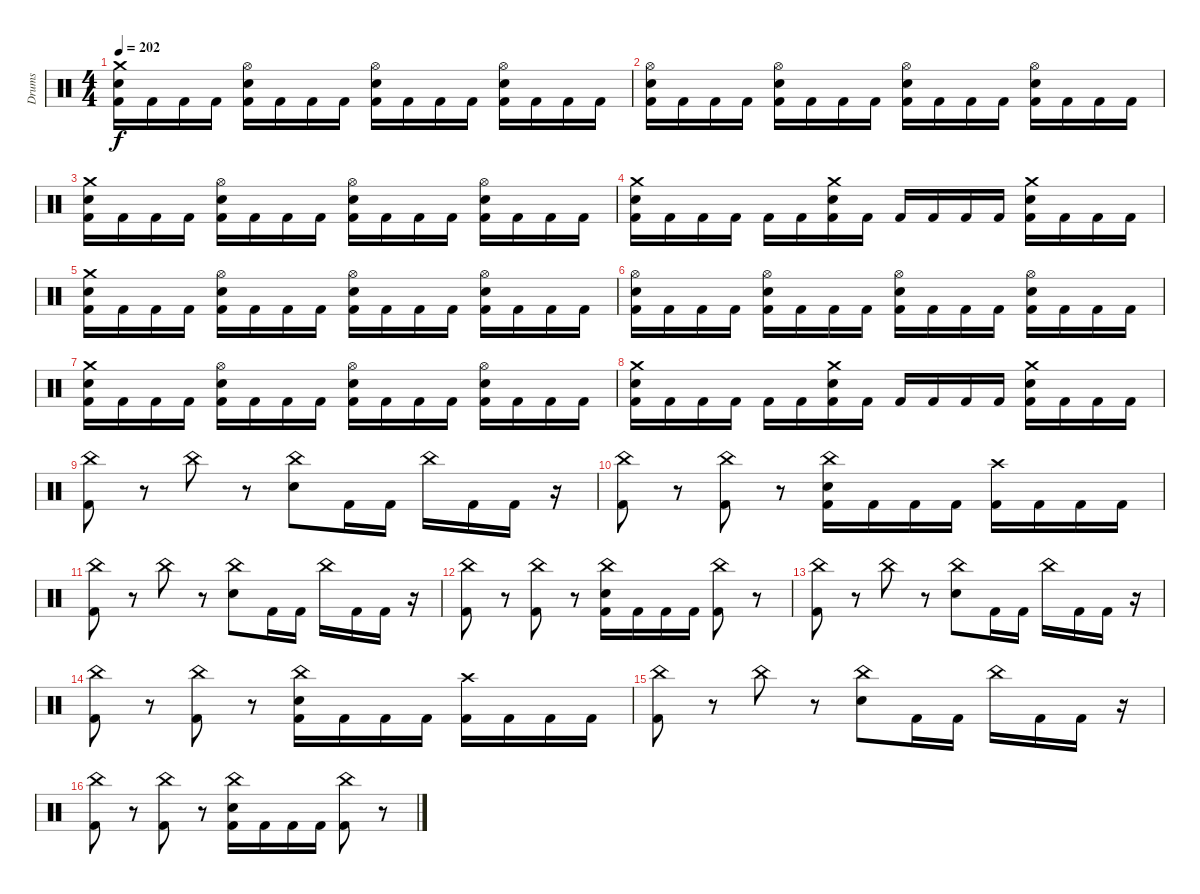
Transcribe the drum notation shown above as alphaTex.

\track ("Drums" "Drums") {instrument percussion}
\staff {score}
\articulation defaults
\ts (4 4)
\tempo 202
\clef neutral
\ks c
("Crash medium (hit)" "Electric Snare (hit)" "Kick (hit) 2").16{dy f} "Kick (hit) 2".16 "Kick (hit) 2".16 "Kick (hit) 2".16 ("Hi-Hat (open)" "Electric Snare (hit)" "Kick (hit) 2").16 "Kick (hit) 2".16 "Kick (hit) 2".16 "Kick (hit) 2".16 ("Hi-Hat (open)" "Electric Snare (hit)" "Kick (hit) 2").16 "Kick (hit) 2".16 "Kick (hit) 2".16 "Kick (hit) 2".16 ("Hi-Hat (open)" "Electric Snare (hit)" "Kick (hit) 2").16 "Kick (hit) 2".16 "Kick (hit) 2".16 "Kick (hit) 2".16 |
("Hi-Hat (open)" "Electric Snare (hit)" "Kick (hit) 2").16 "Kick (hit) 2".16 "Kick (hit) 2".16 "Kick (hit) 2".16 ("Hi-Hat (open)" "Electric Snare (hit)" "Kick (hit) 2").16 "Kick (hit) 2".16 "Kick (hit) 2".16 "Kick (hit) 2".16 ("Hi-Hat (open)" "Electric Snare (hit)" "Kick (hit) 2").16 "Kick (hit) 2".16 "Kick (hit) 2".16 "Kick (hit) 2".16 ("Hi-Hat (open)" "Electric Snare (hit)" "Kick (hit) 2").16 "Kick (hit) 2".16 "Kick (hit) 2".16 "Kick (hit) 2".16 |
("Crash medium (hit)" "Electric Snare (hit)" "Kick (hit) 2").16 "Kick (hit) 2".16 "Kick (hit) 2".16 "Kick (hit) 2".16 ("Hi-Hat (open)" "Electric Snare (hit)" "Kick (hit) 2").16 "Kick (hit) 2".16 "Kick (hit) 2".16 "Kick (hit) 2".16 ("Hi-Hat (open)" "Electric Snare (hit)" "Kick (hit) 2").16 "Kick (hit) 2".16 "Kick (hit) 2".16 "Kick (hit) 2".16 ("Hi-Hat (open)" "Electric Snare (hit)" "Kick (hit) 2").16 "Kick (hit) 2".16 "Kick (hit) 2".16 "Kick (hit) 2".16 |
("Crash medium (hit)" "Electric Snare (hit)" "Kick (hit) 2").16 "Kick (hit) 2".16 "Kick (hit) 2".16 "Kick (hit) 2".16 "Kick (hit) 2".16 "Kick (hit) 2".16 ("Crash medium (hit)" "Electric Snare (hit)" "Kick (hit) 2").16 "Kick (hit) 2".16 "Kick (hit) 2".16 "Kick (hit) 2".16 "Kick (hit) 2".16 "Kick (hit) 2".16 ("Crash medium (hit)" "Electric Snare (hit)" "Kick (hit) 2").16 "Kick (hit) 2".16 "Kick (hit) 2".16 "Kick (hit) 2".16 |
("Crash medium (hit)" "Electric Snare (hit)" "Kick (hit) 2").16 "Kick (hit) 2".16 "Kick (hit) 2".16 "Kick (hit) 2".16 ("Hi-Hat (open)" "Electric Snare (hit)" "Kick (hit) 2").16 "Kick (hit) 2".16 "Kick (hit) 2".16 "Kick (hit) 2".16 ("Hi-Hat (open)" "Electric Snare (hit)" "Kick (hit) 2").16 "Kick (hit) 2".16 "Kick (hit) 2".16 "Kick (hit) 2".16 ("Hi-Hat (open)" "Electric Snare (hit)" "Kick (hit) 2").16 "Kick (hit) 2".16 "Kick (hit) 2".16 "Kick (hit) 2".16 |
("Hi-Hat (open)" "Electric Snare (hit)" "Kick (hit) 2").16 "Kick (hit) 2".16 "Kick (hit) 2".16 "Kick (hit) 2".16 ("Hi-Hat (open)" "Electric Snare (hit)" "Kick (hit) 2").16 "Kick (hit) 2".16 "Kick (hit) 2".16 "Kick (hit) 2".16 ("Hi-Hat (open)" "Electric Snare (hit)" "Kick (hit) 2").16 "Kick (hit) 2".16 "Kick (hit) 2".16 "Kick (hit) 2".16 ("Hi-Hat (open)" "Electric Snare (hit)" "Kick (hit) 2").16 "Kick (hit) 2".16 "Kick (hit) 2".16 "Kick (hit) 2".16 |
("Crash medium (hit)" "Electric Snare (hit)" "Kick (hit) 2").16 "Kick (hit) 2".16 "Kick (hit) 2".16 "Kick (hit) 2".16 ("Hi-Hat (open)" "Electric Snare (hit)" "Kick (hit) 2").16 "Kick (hit) 2".16 "Kick (hit) 2".16 "Kick (hit) 2".16 ("Hi-Hat (open)" "Electric Snare (hit)" "Kick (hit) 2").16 "Kick (hit) 2".16 "Kick (hit) 2".16 "Kick (hit) 2".16 ("Hi-Hat (open)" "Electric Snare (hit)" "Kick (hit) 2").16 "Kick (hit) 2".16 "Kick (hit) 2".16 "Kick (hit) 2".16 |
("Crash medium (hit)" "Electric Snare (hit)" "Kick (hit) 2").16 "Kick (hit) 2".16 "Kick (hit) 2".16 "Kick (hit) 2".16 "Kick (hit) 2".16 "Kick (hit) 2".16 ("Crash medium (hit)" "Electric Snare (hit)" "Kick (hit) 2").16 "Kick (hit) 2".16 "Kick (hit) 2".16 "Kick (hit) 2".16 "Kick (hit) 2".16 "Kick (hit) 2".16 ("Crash medium (hit)" "Electric Snare (hit)" "Kick (hit) 2").16 "Kick (hit) 2".16 "Kick (hit) 2".16 "Kick (hit) 2".16 |
("China (hit)" "Kick (hit) 2").8 r.8 "China (hit)".8 r.8 ("China (hit)" "Electric Snare (hit)").8 "Kick (hit) 2".16 "Kick (hit) 2".16 "China (hit)".16 "Kick (hit) 2".16 "Kick (hit) 2".16 r.16 |
("China (hit)" "Kick (hit) 2").8 r.8 ("China (hit)" "Kick (hit) 2").8 r.8 ("China (hit)" "Electric Snare (hit)" "Kick (hit) 2").16 "Kick (hit) 2".16 "Kick (hit) 2".16 "Kick (hit) 2".16 ("Crash high (hit)" "Kick (hit) 2").16 "Kick (hit) 2".16 "Kick (hit) 2".16 "Kick (hit) 2".16 |
("China (hit)" "Kick (hit) 2").8 r.8 "China (hit)".8 r.8 ("China (hit)" "Electric Snare (hit)").8 "Kick (hit) 2".16 "Kick (hit) 2".16 "China (hit)".16 "Kick (hit) 2".16 "Kick (hit) 2".16 r.16 |
("China (hit)" "Kick (hit) 2").8 r.8 ("China (hit)" "Kick (hit) 2").8 r.8 ("China (hit)" "Electric Snare (hit)" "Kick (hit) 2").16 "Kick (hit) 2".16 "Kick (hit) 2".16 "Kick (hit) 2".16 ("China (hit)" "Kick (hit) 2").8 r.8 |
("China (hit)" "Kick (hit) 2").8 r.8 "China (hit)".8 r.8 ("China (hit)" "Electric Snare (hit)").8 "Kick (hit) 2".16 "Kick (hit) 2".16 "China (hit)".16 "Kick (hit) 2".16 "Kick (hit) 2".16 r.16 |
("China (hit)" "Kick (hit) 2").8 r.8 ("China (hit)" "Kick (hit) 2").8 r.8 ("China (hit)" "Electric Snare (hit)" "Kick (hit) 2").16 "Kick (hit) 2".16 "Kick (hit) 2".16 "Kick (hit) 2".16 ("Crash high (hit)" "Kick (hit) 2").16 "Kick (hit) 2".16 "Kick (hit) 2".16 "Kick (hit) 2".16 |
("China (hit)" "Kick (hit) 2").8 r.8 "China (hit)".8 r.8 ("China (hit)" "Electric Snare (hit)").8 "Kick (hit) 2".16 "Kick (hit) 2".16 "China (hit)".16 "Kick (hit) 2".16 "Kick (hit) 2".16 r.16 |
("China (hit)" "Kick (hit) 2").8 r.8 ("China (hit)" "Kick (hit) 2").8 r.8 ("China (hit)" "Electric Snare (hit)" "Kick (hit) 2").16 "Kick (hit) 2".16 "Kick (hit) 2".16 "Kick (hit) 2".16 ("China (hit)" "Kick (hit) 2").8 r.8
